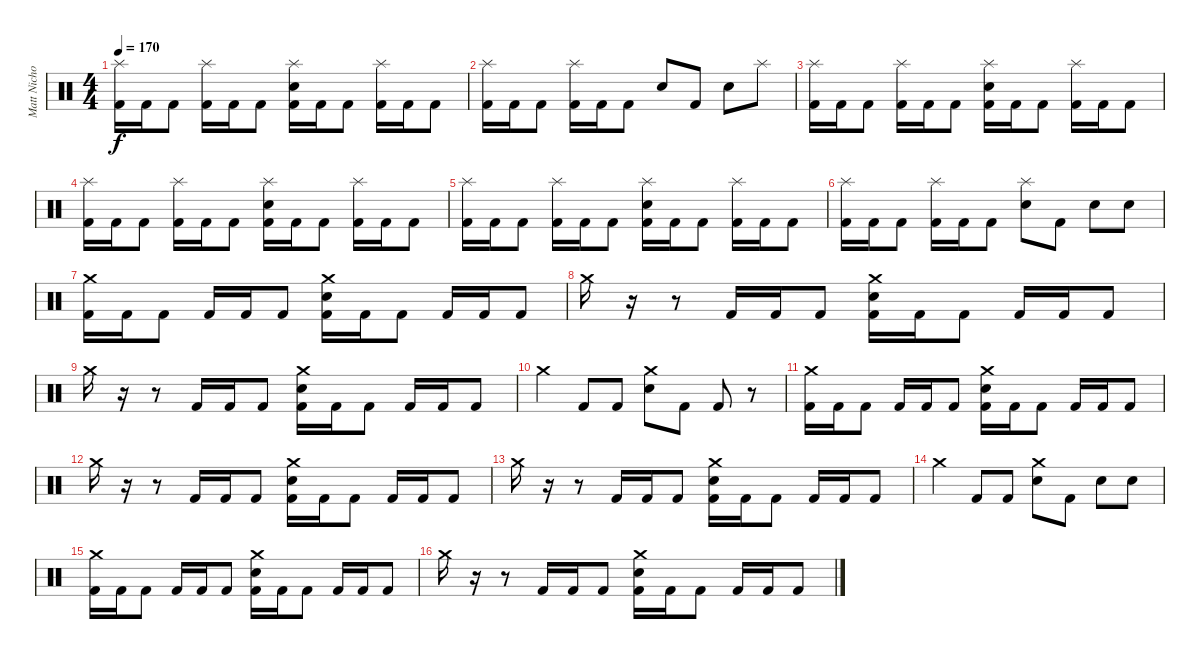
\track ("Matt Nicholls" "Matt Nicho") {instrument percussion}
\staff {score}
\articulation defaults
\ts (4 4)
\tempo 170
\clef neutral
\ks c
("Splash (hit)" "Kick (hit) 2").16{dy f} "Kick (hit) 2".16 "Kick (hit) 2".8 ("Splash (hit)" "Kick (hit) 2").16 "Kick (hit) 2".16 "Kick (hit) 2".8 ("Splash (hit)" "Snare (hit) 2" "Kick (hit) 2").16 "Kick (hit) 2".16 "Kick (hit) 2".8 ("Splash (hit)" "Kick (hit) 2").16 "Kick (hit) 2".16 "Kick (hit) 2".8 |
("Splash (hit)" "Kick (hit) 2").16 "Kick (hit) 2".16 "Kick (hit) 2".8 ("Splash (hit)" "Kick (hit) 2").16 "Kick (hit) 2".16 "Kick (hit) 2".8 "Snare (hit) 2".8 "Kick (hit) 2".8 "Snare (hit) 2".8 "Splash (hit)".8 |
("Splash (hit)" "Kick (hit) 2").16 "Kick (hit) 2".16 "Kick (hit) 2".8 ("Splash (hit)" "Kick (hit) 2").16 "Kick (hit) 2".16 "Kick (hit) 2".8 ("Splash (hit)" "Snare (hit) 2" "Kick (hit) 2").16 "Kick (hit) 2".16 "Kick (hit) 2".8 ("Splash (hit)" "Kick (hit) 2").16 "Kick (hit) 2".16 "Kick (hit) 2".8 |
("Splash (hit)" "Kick (hit) 2").16 "Kick (hit) 2".16 "Kick (hit) 2".8 ("Splash (hit)" "Kick (hit) 2").16 "Kick (hit) 2".16 "Kick (hit) 2".8 ("Splash (hit)" "Snare (hit) 2" "Kick (hit) 2").16 "Kick (hit) 2".16 "Kick (hit) 2".8 ("Splash (hit)" "Kick (hit) 2").16 "Kick (hit) 2".16 "Kick (hit) 2".8 |
("Splash (hit)" "Kick (hit) 2").16 "Kick (hit) 2".16 "Kick (hit) 2".8 ("Splash (hit)" "Kick (hit) 2").16 "Kick (hit) 2".16 "Kick (hit) 2".8 ("Splash (hit)" "Snare (hit) 2" "Kick (hit) 2").16 "Kick (hit) 2".16 "Kick (hit) 2".8 ("Splash (hit)" "Kick (hit) 2").16 "Kick (hit) 2".16 "Kick (hit) 2".8 |
("Splash (hit)" "Kick (hit) 2").16 "Kick (hit) 2".16 "Kick (hit) 2".8 ("Splash (hit)" "Kick (hit) 2").16 "Kick (hit) 2".16 "Kick (hit) 2".8 ("Splash (hit)" "Snare (hit) 2").8 "Kick (hit) 2".8 "Snare (hit) 2".8 "Snare (hit) 2".8 |
("Crash medium (hit)" "Kick (hit) 2").16 "Kick (hit) 2".16 "Kick (hit) 2".8 "Kick (hit) 2".16 "Kick (hit) 2".16 "Kick (hit) 2".8 ("Crash medium (hit)" "Snare (hit) 2" "Kick (hit) 2").16 "Kick (hit) 2".16 "Kick (hit) 2".8 "Kick (hit) 2".16 "Kick (hit) 2".16 "Kick (hit) 2".8 |
"Crash medium (hit)".16 r.16 r.8 "Kick (hit) 2".16 "Kick (hit) 2".16 "Kick (hit) 2".8 ("Crash medium (hit)" "Snare (hit) 2" "Kick (hit) 2").16 "Kick (hit) 2".16 "Kick (hit) 2".8 "Kick (hit) 2".16 "Kick (hit) 2".16 "Kick (hit) 2".8 |
"Crash medium (hit)".16 r.16 r.8 "Kick (hit) 2".16 "Kick (hit) 2".16 "Kick (hit) 2".8 ("Crash medium (hit)" "Snare (hit) 2" "Kick (hit) 2").16 "Kick (hit) 2".16 "Kick (hit) 2".8 "Kick (hit) 2".16 "Kick (hit) 2".16 "Kick (hit) 2".8 |
"Crash medium (hit)".4 "Kick (hit) 2".8 "Kick (hit) 2".8 ("Crash medium (hit)" "Snare (hit) 2").8 "Kick (hit) 2".8 "Kick (hit) 2".8 r.8 |
("Crash medium (hit)" "Kick (hit) 2").16 "Kick (hit) 2".16 "Kick (hit) 2".8 "Kick (hit) 2".16 "Kick (hit) 2".16 "Kick (hit) 2".8 ("Crash medium (hit)" "Snare (hit) 2" "Kick (hit) 2").16 "Kick (hit) 2".16 "Kick (hit) 2".8 "Kick (hit) 2".16 "Kick (hit) 2".16 "Kick (hit) 2".8 |
"Crash medium (hit)".16 r.16 r.8 "Kick (hit) 2".16 "Kick (hit) 2".16 "Kick (hit) 2".8 ("Crash medium (hit)" "Snare (hit) 2" "Kick (hit) 2").16 "Kick (hit) 2".16 "Kick (hit) 2".8 "Kick (hit) 2".16 "Kick (hit) 2".16 "Kick (hit) 2".8 |
"Crash medium (hit)".16 r.16 r.8 "Kick (hit) 2".16 "Kick (hit) 2".16 "Kick (hit) 2".8 ("Crash medium (hit)" "Snare (hit) 2" "Kick (hit) 2").16 "Kick (hit) 2".16 "Kick (hit) 2".8 "Kick (hit) 2".16 "Kick (hit) 2".16 "Kick (hit) 2".8 |
"Crash medium (hit)".4 "Kick (hit) 2".8 "Kick (hit) 2".8 ("Crash medium (hit)" "Snare (hit) 2").8 "Kick (hit) 2".8 "Snare (hit) 2".8 "Snare (hit) 2".8 |
("Crash medium (hit)" "Kick (hit) 2").16 "Kick (hit) 2".16 "Kick (hit) 2".8 "Kick (hit) 2".16 "Kick (hit) 2".16 "Kick (hit) 2".8 ("Crash medium (hit)" "Snare (hit) 2" "Kick (hit) 2").16 "Kick (hit) 2".16 "Kick (hit) 2".8 "Kick (hit) 2".16 "Kick (hit) 2".16 "Kick (hit) 2".8 |
"Crash medium (hit)".16 r.16 r.8 "Kick (hit) 2".16 "Kick (hit) 2".16 "Kick (hit) 2".8 ("Crash medium (hit)" "Snare (hit) 2" "Kick (hit) 2").16 "Kick (hit) 2".16 "Kick (hit) 2".8 "Kick (hit) 2".16 "Kick (hit) 2".16 "Kick (hit) 2".8
